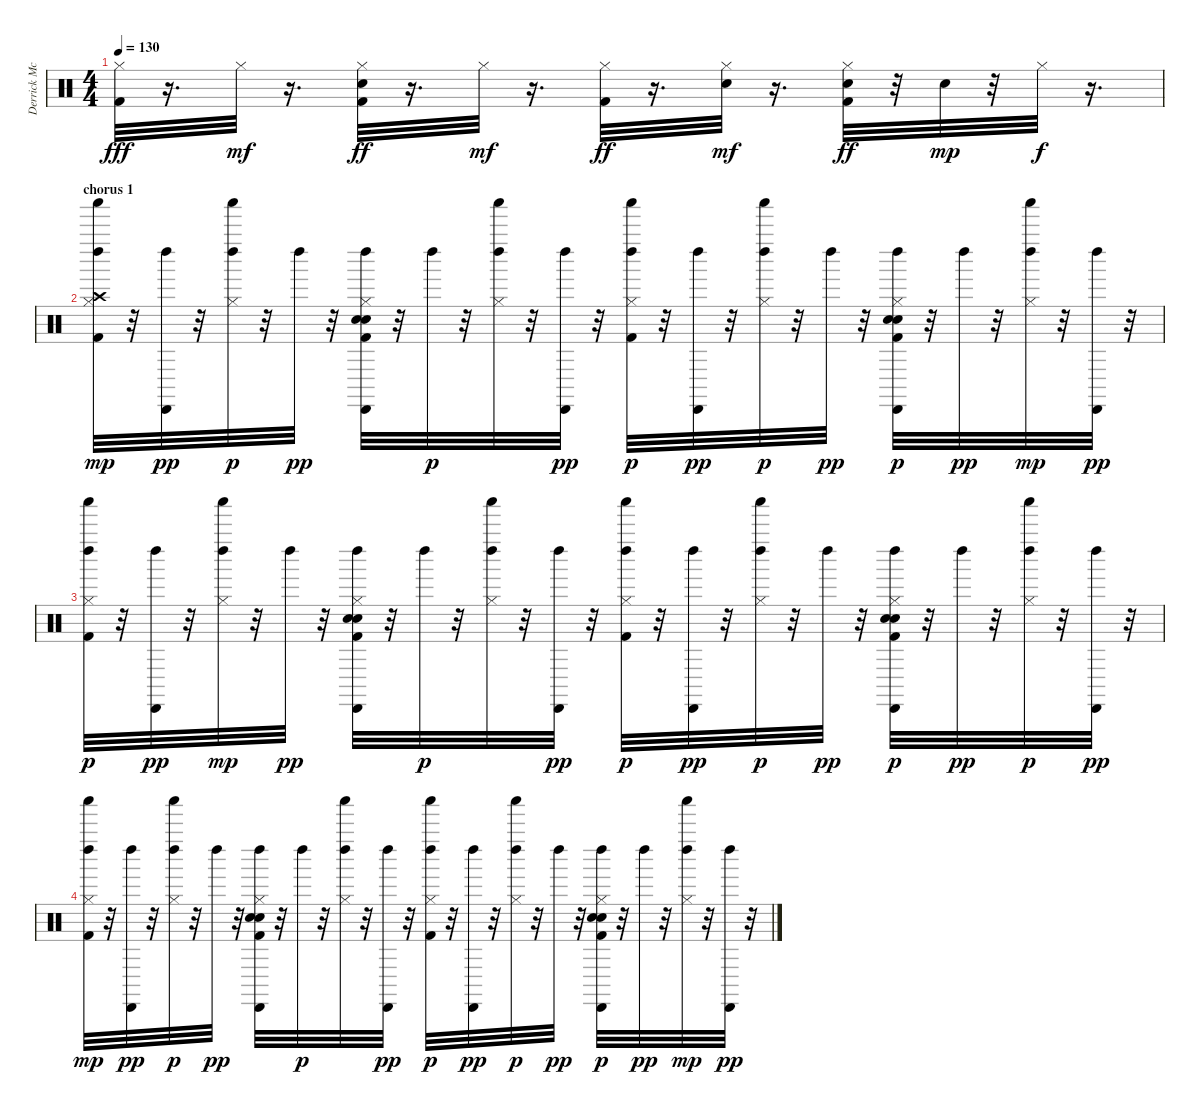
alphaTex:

\track ("Derrick McKenzie\\Sola Akingbola - Drums" "Derrick Mc") {instrument percussion}
\staff {score}
\articulation defaults
\ts (4 4)
\tempo 130
\clef neutral
\ks c
("Kick (hit) 2" "Hi-Hat (closed)").32{dy fff} r.16{d} "Hi-Hat (closed)".32{dy mf} r.16{d} ("Kick (hit) 2" "Electric Snare (hit)" "Hi-Hat (closed)").32{dy ff} r.16{d} "Hi-Hat (closed)".32{dy mf} r.16{d} ("Kick (hit) 2" "Hi-Hat (closed)").32{dy ff} r.16{d} ("Electric Snare (hit)" "Hi-Hat (closed)").32{dy mf} r.16{d} ("Kick (hit) 2" "Electric Snare (hit)" "Hi-Hat (closed)").32{dy ff} r.32 "Electric Snare (hit)".32{dy mp} r.32 "Hi-Hat (closed)".32{dy f} r.16{d} |
\section ("" "chorus 1")
("Kick (hit) 2" "Hi-Hat (closed)" "Crash high (hit)" "Left Maraca (hit)" "Shaker (hit)").32{dy mp} r.32 ("Cabasa (hit)" "Left Maraca (hit)").32{dy pp} r.32 ("Hi-Hat (closed)" "Left Maraca (hit)" "Shaker (hit)").32{dy p} r.32 "Left Maraca (hit)".32{dy pp} r.32 ("Kick (hit) 2" "Hand Clap (hit)" "Electric Snare (hit)" "Hi-Hat (closed)" "Cabasa (hit)" "Left Maraca (hit)").32 r.32 "Left Maraca (hit)".32{dy p} r.32 ("Hi-Hat (closed)" "Left Maraca (hit)" "Shaker (hit)").32 r.32 ("Cabasa (hit)" "Left Maraca (hit)").32{dy pp} r.32 ("Kick (hit) 2" "Hi-Hat (closed)" "Left Maraca (hit)" "Shaker (hit)").32{dy p} r.32 ("Cabasa (hit)" "Left Maraca (hit)").32{dy pp} r.32 ("Hi-Hat (closed)" "Left Maraca (hit)" "Shaker (hit)").32{dy p} r.32 "Left Maraca (hit)".32{dy pp} r.32 ("Kick (hit) 2" "Hand Clap (hit)" "Electric Snare (hit)" "Hi-Hat (closed)" "Cabasa (hit)" "Left Maraca (hit)").32{dy p} r.32 "Left Maraca (hit)".32{dy pp} r.32 ("Hi-Hat (closed)" "Left Maraca (hit)" "Shaker (hit)").32{dy mp} r.32 ("Cabasa (hit)" "Left Maraca (hit)").32{dy pp} r.32 |
("Kick (hit) 2" "Hi-Hat (closed)" "Left Maraca (hit)" "Shaker (hit)").32{dy p} r.32 ("Cabasa (hit)" "Left Maraca (hit)").32{dy pp} r.32 ("Hi-Hat (closed)" "Left Maraca (hit)" "Shaker (hit)").32{dy mp} r.32 "Left Maraca (hit)".32{dy pp} r.32 ("Kick (hit) 2" "Hand Clap (hit)" "Electric Snare (hit)" "Hi-Hat (closed)" "Cabasa (hit)" "Left Maraca (hit)").32 r.32 "Left Maraca (hit)".32{dy p} r.32 ("Hi-Hat (closed)" "Left Maraca (hit)" "Shaker (hit)").32 r.32 ("Cabasa (hit)" "Left Maraca (hit)").32{dy pp} r.32 ("Kick (hit) 2" "Hi-Hat (closed)" "Left Maraca (hit)" "Shaker (hit)").32{dy p} r.32 ("Cabasa (hit)" "Left Maraca (hit)").32{dy pp} r.32 ("Hi-Hat (closed)" "Left Maraca (hit)" "Shaker (hit)").32{dy p} r.32 "Left Maraca (hit)".32{dy pp} r.32 ("Kick (hit) 2" "Hand Clap (hit)" "Electric Snare (hit)" "Hi-Hat (closed)" "Cabasa (hit)" "Left Maraca (hit)").32{dy p} r.32 "Left Maraca (hit)".32{dy pp} r.32 ("Hi-Hat (closed)" "Left Maraca (hit)" "Shaker (hit)").32{dy p} r.32 ("Cabasa (hit)" "Left Maraca (hit)").32{dy pp} r.32 |
("Kick (hit) 2" "Hi-Hat (closed)" "Left Maraca (hit)" "Shaker (hit)").32{dy mp} r.32 ("Cabasa (hit)" "Left Maraca (hit)").32{dy pp} r.32 ("Hi-Hat (closed)" "Left Maraca (hit)" "Shaker (hit)").32{dy p} r.32 "Left Maraca (hit)".32{dy pp} r.32 ("Kick (hit) 2" "Hand Clap (hit)" "Electric Snare (hit)" "Hi-Hat (closed)" "Cabasa (hit)" "Left Maraca (hit)").32 r.32 "Left Maraca (hit)".32{dy p} r.32 ("Hi-Hat (closed)" "Left Maraca (hit)" "Shaker (hit)").32 r.32 ("Cabasa (hit)" "Left Maraca (hit)").32{dy pp} r.32 ("Kick (hit) 2" "Hi-Hat (closed)" "Left Maraca (hit)" "Shaker (hit)").32{dy p} r.32 ("Cabasa (hit)" "Left Maraca (hit)").32{dy pp} r.32 ("Hi-Hat (closed)" "Left Maraca (hit)" "Shaker (hit)").32{dy p} r.32 "Left Maraca (hit)".32{dy pp} r.32 ("Kick (hit) 2" "Hand Clap (hit)" "Electric Snare (hit)" "Hi-Hat (closed)" "Cabasa (hit)" "Left Maraca (hit)").32{dy p} r.32 "Left Maraca (hit)".32{dy pp} r.32 ("Hi-Hat (closed)" "Left Maraca (hit)" "Shaker (hit)").32{dy mp} r.32 ("Cabasa (hit)" "Left Maraca (hit)").32{dy pp} r.32
